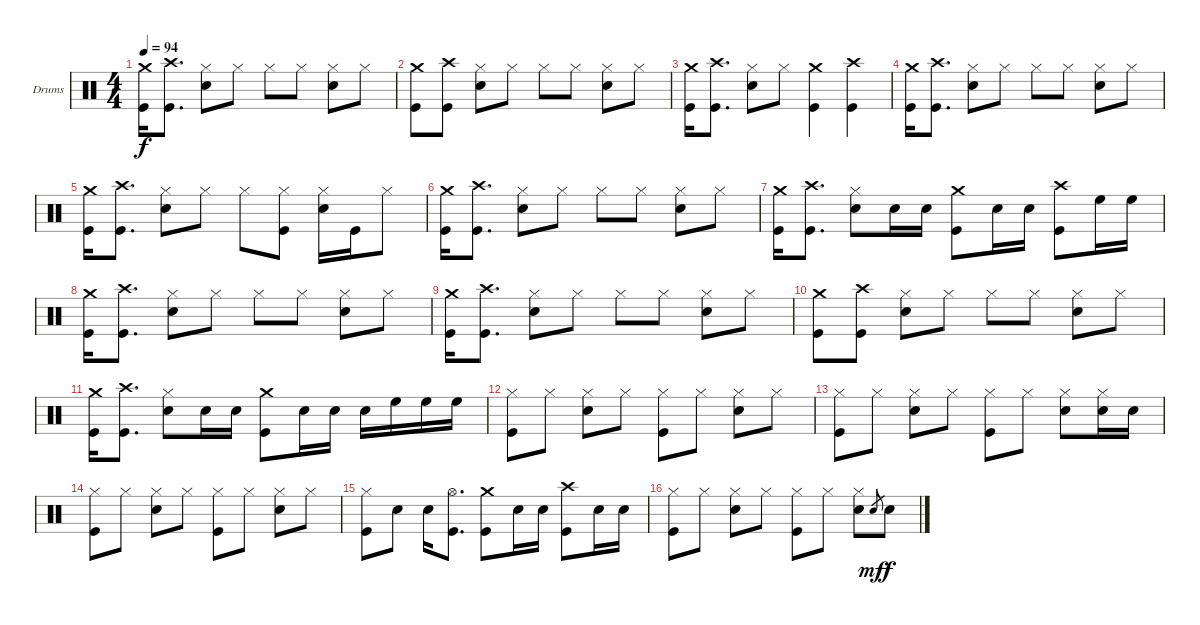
\bracketExtendMode groupsimilarinstruments
\firstSystemTrackNameOrientation horizontal
\otherSystemsTrackNameOrientation horizontal
\track ("Drumkit" "Drums") {instrument percussion}
\staff {score}
\articulation defaults
\ts (4 4)
\tempo 94
\clef neutral
\ks c
("Crash medium (hit)" "Kick (hit)").16{dy f} ("Crash high (hit)" "Kick (hit)").8{d} ("Hi-Hat (closed)" "Snare (hit) 2").8 "Hi-Hat (closed)".8 "Hi-Hat (closed)".8 "Hi-Hat (closed)".8 ("Hi-Hat (closed)" "Snare (hit) 2").8 "Hi-Hat (closed)".8 |
("Crash medium (hit)" "Kick (hit)").8 ("Crash high (hit)" "Kick (hit)").8 ("Hi-Hat (closed)" "Snare (hit) 2").8 "Hi-Hat (closed)".8 "Hi-Hat (closed)".8 "Hi-Hat (closed)".8 ("Hi-Hat (closed)" "Snare (hit) 2").8 "Hi-Hat (closed)".8 |
("Crash medium (hit)" "Kick (hit)").16 ("Crash high (hit)" "Kick (hit)").8{d} ("Hi-Hat (closed)" "Snare (hit) 2").8 "Hi-Hat (closed)".8 ("Crash medium (hit)" "Kick (hit)").4 ("Crash high (hit)" "Kick (hit)").4 |
("Crash medium (hit)" "Kick (hit)").16 ("Crash high (hit)" "Kick (hit)").8{d} ("Hi-Hat (closed)" "Snare (hit) 2").8 "Hi-Hat (closed)".8 "Hi-Hat (closed)".8 "Hi-Hat (closed)".8 ("Hi-Hat (closed)" "Snare (hit) 2").8 "Hi-Hat (closed)".8 |
("Crash medium (hit)" "Kick (hit)").16 ("Crash high (hit)" "Kick (hit)").8{d} ("Hi-Hat (closed)" "Snare (hit) 2").8 "Hi-Hat (closed)".8 "Hi-Hat (closed)".8 ("Hi-Hat (closed)" "Kick (hit)").8 ("Hi-Hat (closed)" "Snare (hit) 2").16 "Kick (hit)".16 "Hi-Hat (closed)".8 |
("Crash medium (hit)" "Kick (hit)").16 ("Crash high (hit)" "Kick (hit)").8{d} ("Hi-Hat (closed)" "Snare (hit) 2").8 "Hi-Hat (closed)".8 "Hi-Hat (closed)".8 "Hi-Hat (closed)".8 ("Hi-Hat (closed)" "Snare (hit) 2").8 "Hi-Hat (closed)".8 |
("Crash medium (hit)" "Kick (hit)").16 ("Crash high (hit)" "Kick (hit)").8{d} ("Hi-Hat (closed)" "Snare (hit) 2").8 "Snare (hit) 2".16 "Snare (hit) 2".16 ("Crash medium (hit)" "Kick (hit)").8 "Snare (hit) 2".16 "Snare (hit) 2".16 ("Crash high (hit)" "Kick (hit)").8 "High Floor Tom (hit)".16 "High Floor Tom (hit)".16 |
("Crash medium (hit)" "Kick (hit)").16 ("Crash high (hit)" "Kick (hit)").8{d} ("Hi-Hat (closed)" "Snare (hit) 2").8 "Hi-Hat (closed)".8 "Hi-Hat (closed)".8 "Hi-Hat (closed)".8 ("Hi-Hat (closed)" "Snare (hit) 2").8 "Hi-Hat (closed)".8 |
("Crash medium (hit)" "Kick (hit)").16 ("Crash high (hit)" "Kick (hit)").8{d} ("Hi-Hat (closed)" "Snare (hit) 2").8 "Hi-Hat (closed)".8 "Hi-Hat (closed)".8 "Hi-Hat (closed)".8 ("Hi-Hat (closed)" "Snare (hit) 2").8 "Hi-Hat (closed)".8 |
("Crash medium (hit)" "Kick (hit)").8 ("Crash high (hit)" "Kick (hit)").8 ("Hi-Hat (closed)" "Snare (hit) 2").8 "Hi-Hat (closed)".8 "Hi-Hat (closed)".8 "Hi-Hat (closed)".8 ("Hi-Hat (closed)" "Snare (hit) 2").8 "Hi-Hat (closed)".8 |
("Crash medium (hit)" "Kick (hit)").16 ("Crash high (hit)" "Kick (hit)").8{d} ("Hi-Hat (closed)" "Snare (hit) 2").8 "Snare (hit) 2".16 "Snare (hit) 2".16 ("Crash medium (hit)" "Kick (hit)").8 "Snare (hit) 2".16 "Snare (hit) 2".16 "Snare (hit) 2".16 "High Floor Tom (hit)".16 "High Floor Tom (hit)".16 "High Floor Tom (hit)".16 |
("Hi-Hat (closed)" "Kick (hit)").8 "Hi-Hat (closed)".8 ("Hi-Hat (closed)" "Snare (hit) 2").8 "Hi-Hat (closed)".8 ("Hi-Hat (closed)" "Kick (hit)").8 "Hi-Hat (closed)".8 ("Hi-Hat (closed)" "Snare (hit) 2").8 "Hi-Hat (closed)".8 |
("Hi-Hat (closed)" "Kick (hit)").8 "Hi-Hat (closed)".8 ("Hi-Hat (closed)" "Snare (hit) 2").8 "Hi-Hat (closed)".8 ("Hi-Hat (closed)" "Kick (hit)").8 "Hi-Hat (closed)".8 ("Hi-Hat (closed)" "Snare (hit) 2").8 ("Hi-Hat (closed)" "Snare (hit) 2").16 "Snare (hit) 2".16 |
("Hi-Hat (closed)" "Kick (hit)").8 "Hi-Hat (closed)".8 ("Hi-Hat (closed)" "Snare (hit) 2").8 "Hi-Hat (closed)".8 ("Hi-Hat (closed)" "Kick (hit)").8 "Hi-Hat (closed)".8 ("Hi-Hat (closed)" "Snare (hit) 2").8 "Hi-Hat (closed)".8 |
("Hi-Hat (closed)" "Kick (hit)").8 "Snare (hit) 2".8 "Snare (hit) 2".16 ("Hi-Hat (open)" "Kick (hit)").8{d} ("Crash medium (hit)" "Kick (hit)").8 "Snare (hit) 2".16 "Snare (hit) 2".16 ("Crash high (hit)" "Kick (hit)").8 "Snare (hit) 2".16 "Snare (hit) 2".16 |
("Hi-Hat (closed)" "Kick (hit)").8 "Hi-Hat (closed)".8 ("Hi-Hat (closed)" "Snare (hit) 2").8 "Hi-Hat (closed)".8 ("Hi-Hat (closed)" "Kick (hit)").8 "Hi-Hat (closed)".8 ("Hi-Hat (closed)" "Snare (hit) 2").8 "Snare (hit) 2".8{gr dy mf} "Snare (hit) 2".8{dy f}
